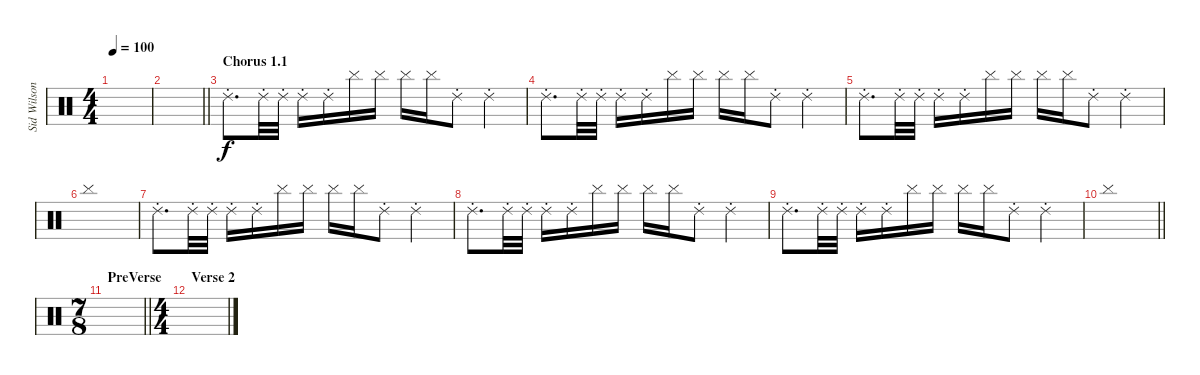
\track ("Sid Wilson" "Sid Wilson") {instrument percussion}
\staff {score}
\articulation defaults
\ts (4 4)
\tempo 100
\clef neutral
\ks c
|
\barLineRight lightlight
|
\section ("" "Chorus 1.1")
"Ride (choke) 2".8{d} "Ride (choke) 2".32 "Ride (choke) 2".32 "Ride (choke) 2".16 "Ride (choke) 2".16 "Cymbal (hit)".16 "Cymbal (hit)".16 "Cymbal (hit)".16 "Cymbal (hit)".16 "Ride (choke) 2".8 "Ride (choke) 2".4 |
"Ride (choke) 2".8{d} "Ride (choke) 2".32 "Ride (choke) 2".32 "Ride (choke) 2".16 "Ride (choke) 2".16 "Cymbal (hit)".16 "Cymbal (hit)".16 "Cymbal (hit)".16 "Cymbal (hit)".16 "Ride (choke) 2".8 "Ride (choke) 2".4 |
"Ride (choke) 2".8{d} "Ride (choke) 2".32 "Ride (choke) 2".32 "Ride (choke) 2".16 "Ride (choke) 2".16 "Cymbal (hit)".16 "Cymbal (hit)".16 "Cymbal (hit)".16 "Cymbal (hit)".16 "Ride (choke) 2".8 "Ride (choke) 2".4 |
"Cymbal (hit)".1 |
"Ride (choke) 2".8{d} "Ride (choke) 2".32 "Ride (choke) 2".32 "Ride (choke) 2".16 "Ride (choke) 2".16 "Cymbal (hit)".16 "Cymbal (hit)".16 "Cymbal (hit)".16 "Cymbal (hit)".16 "Ride (choke) 2".8 "Ride (choke) 2".4 |
"Ride (choke) 2".8{d} "Ride (choke) 2".32 "Ride (choke) 2".32 "Ride (choke) 2".16 "Ride (choke) 2".16 "Cymbal (hit)".16 "Cymbal (hit)".16 "Cymbal (hit)".16 "Cymbal (hit)".16 "Ride (choke) 2".8 "Ride (choke) 2".4 |
"Ride (choke) 2".8{d} "Ride (choke) 2".32 "Ride (choke) 2".32 "Ride (choke) 2".16 "Ride (choke) 2".16 "Cymbal (hit)".16 "Cymbal (hit)".16 "Cymbal (hit)".16 "Cymbal (hit)".16 "Ride (choke) 2".8 "Ride (choke) 2".4 |
\barLineRight lightlight "Cymbal (hit)".1
|
\ts (7 8)
\section ("" "PreVerse")
\barLineRight lightlight
|
\ts (4 4)
\section ("" "Verse 2")
